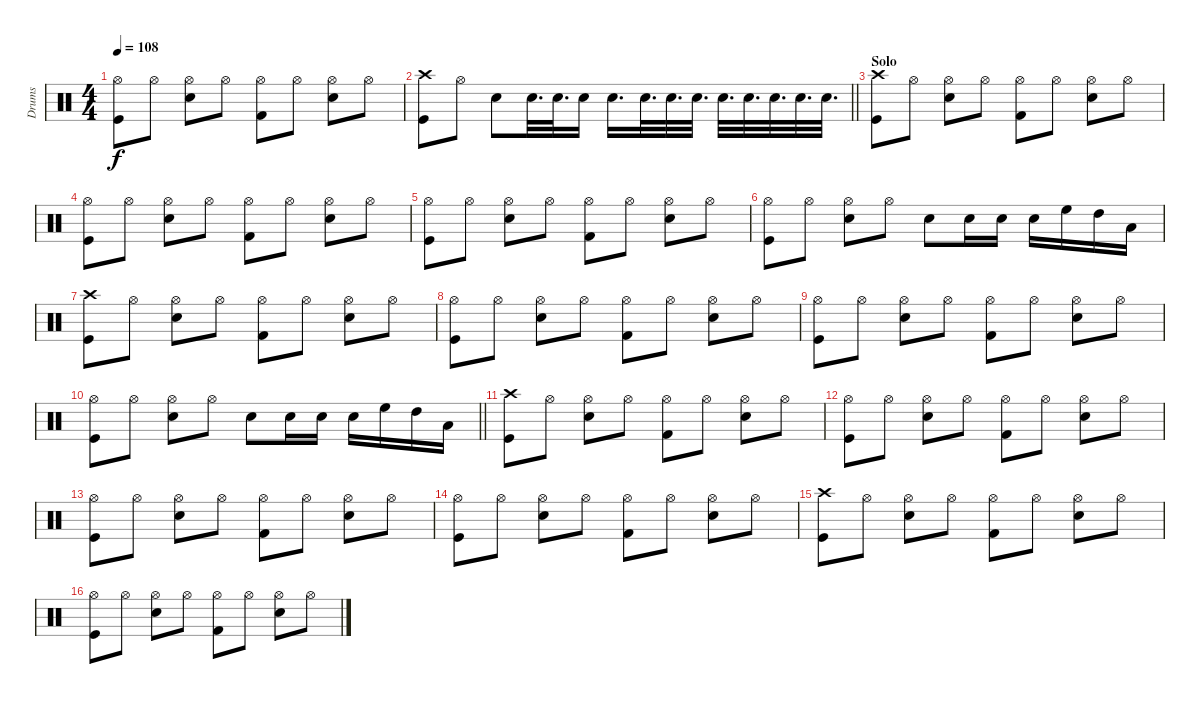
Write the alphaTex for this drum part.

\track ("Drums" "Drums") {instrument percussion}
\staff {score}
\articulation defaults
\ts (4 4)
\tempo 108
\clef neutral
\ks c
("Hi-Hat (open)" "Kick (hit)").8{dy f} "Hi-Hat (open)".8 ("Hi-Hat (open)" "Snare (hit) 2").8 "Hi-Hat (open)".8 ("Hi-Hat (open)" "Kick (hit) 2").8 "Hi-Hat (open)".8 ("Hi-Hat (open)" "Snare (hit) 2").8 "Hi-Hat (open)".8 |
\barLineRight lightlight
("Crash high (hit)" "Kick (hit)").8 "Hi-Hat (open)".8 "Snare (hit) 2".8 "Snare (hit) 2".32{d} "Snare (hit) 2".32{d} "Snare (hit) 2".16 "Snare (hit) 2".16{d} "Snare (hit) 2".32{d} "Snare (hit) 2".32{d} "Snare (hit) 2".32{d} "Snare (hit) 2".32{d} "Snare (hit) 2".32{d} "Snare (hit) 2".32{d} "Snare (hit) 2".32{d} "Snare (hit) 2".32{d} |
\section ("" "Solo")
("Crash high (hit)" "Kick (hit)").8 "Hi-Hat (open)".8 ("Hi-Hat (open)" "Snare (hit) 2").8 "Hi-Hat (open)".8 ("Hi-Hat (open)" "Kick (hit) 2").8 "Hi-Hat (open)".8 ("Hi-Hat (open)" "Snare (hit) 2").8 "Hi-Hat (open)".8 |
("Hi-Hat (open)" "Kick (hit)").8 "Hi-Hat (open)".8 ("Hi-Hat (open)" "Snare (hit) 2").8 "Hi-Hat (open)".8 ("Hi-Hat (open)" "Kick (hit) 2").8 "Hi-Hat (open)".8 ("Hi-Hat (open)" "Snare (hit) 2").8 "Hi-Hat (open)".8 |
("Hi-Hat (open)" "Kick (hit)").8 "Hi-Hat (open)".8 ("Hi-Hat (open)" "Snare (hit) 2").8 "Hi-Hat (open)".8 ("Hi-Hat (open)" "Kick (hit) 2").8 "Hi-Hat (open)".8 ("Hi-Hat (open)" "Snare (hit) 2").8 "Hi-Hat (open)".8 |
("Kick (hit)" "Hi-Hat (open)").8 "Hi-Hat (open)".8 ("Snare (hit) 2" "Hi-Hat (open)").8 "Hi-Hat (open)".8 "Snare (hit) 2".8 "Snare (hit) 2".16 "Snare (hit) 2".16 "Snare (hit) 2".16 "High Floor Tom (hit)".16 "High Tom (hit)".16 "Low Floor Tom (hit)".16 |
("Crash high (hit)" "Kick (hit)").8 "Hi-Hat (open)".8 ("Hi-Hat (open)" "Snare (hit) 2").8 "Hi-Hat (open)".8 ("Hi-Hat (open)" "Kick (hit) 2").8 "Hi-Hat (open)".8 ("Hi-Hat (open)" "Snare (hit) 2").8 "Hi-Hat (open)".8 |
("Hi-Hat (open)" "Kick (hit)").8 "Hi-Hat (open)".8 ("Hi-Hat (open)" "Snare (hit) 2").8 "Hi-Hat (open)".8 ("Hi-Hat (open)" "Kick (hit) 2").8 "Hi-Hat (open)".8 ("Hi-Hat (open)" "Snare (hit) 2").8 "Hi-Hat (open)".8 |
("Hi-Hat (open)" "Kick (hit)").8 "Hi-Hat (open)".8 ("Hi-Hat (open)" "Snare (hit) 2").8 "Hi-Hat (open)".8 ("Hi-Hat (open)" "Kick (hit) 2").8 "Hi-Hat (open)".8 ("Hi-Hat (open)" "Snare (hit) 2").8 "Hi-Hat (open)".8 |
\barLineRight lightlight
("Kick (hit)" "Hi-Hat (open)").8 "Hi-Hat (open)".8 ("Snare (hit) 2" "Hi-Hat (open)").8 "Hi-Hat (open)".8 "Snare (hit) 2".8 "Snare (hit) 2".16 "Snare (hit) 2".16 "Snare (hit) 2".16 "High Floor Tom (hit)".16 "High Tom (hit)".16 "Low Floor Tom (hit)".16 |
("Crash high (hit)" "Kick (hit)").8 "Hi-Hat (open)".8 ("Hi-Hat (open)" "Snare (hit) 2").8 "Hi-Hat (open)".8 ("Hi-Hat (open)" "Kick (hit) 2").8 "Hi-Hat (open)".8 ("Hi-Hat (open)" "Snare (hit) 2").8 "Hi-Hat (open)".8 |
("Hi-Hat (open)" "Kick (hit)").8 "Hi-Hat (open)".8 ("Hi-Hat (open)" "Snare (hit) 2").8 "Hi-Hat (open)".8 ("Hi-Hat (open)" "Kick (hit) 2").8 "Hi-Hat (open)".8 ("Hi-Hat (open)" "Snare (hit) 2").8 "Hi-Hat (open)".8 |
("Hi-Hat (open)" "Kick (hit)").8 "Hi-Hat (open)".8 ("Hi-Hat (open)" "Snare (hit) 2").8 "Hi-Hat (open)".8 ("Hi-Hat (open)" "Kick (hit) 2").8 "Hi-Hat (open)".8 ("Hi-Hat (open)" "Snare (hit) 2").8 "Hi-Hat (open)".8 |
("Hi-Hat (open)" "Kick (hit)").8 "Hi-Hat (open)".8 ("Hi-Hat (open)" "Snare (hit) 2").8 "Hi-Hat (open)".8 ("Hi-Hat (open)" "Kick (hit) 2").8 "Hi-Hat (open)".8 ("Hi-Hat (open)" "Snare (hit) 2").8 "Hi-Hat (open)".8 |
("Crash high (hit)" "Kick (hit)").8 "Hi-Hat (open)".8 ("Hi-Hat (open)" "Snare (hit) 2").8 "Hi-Hat (open)".8 ("Hi-Hat (open)" "Kick (hit) 2").8 "Hi-Hat (open)".8 ("Hi-Hat (open)" "Snare (hit) 2").8 "Hi-Hat (open)".8 |
("Hi-Hat (open)" "Kick (hit)").8 "Hi-Hat (open)".8 ("Hi-Hat (open)" "Snare (hit) 2").8 "Hi-Hat (open)".8 ("Hi-Hat (open)" "Kick (hit) 2").8 "Hi-Hat (open)".8 ("Hi-Hat (open)" "Snare (hit) 2").8 "Hi-Hat (open)".8
